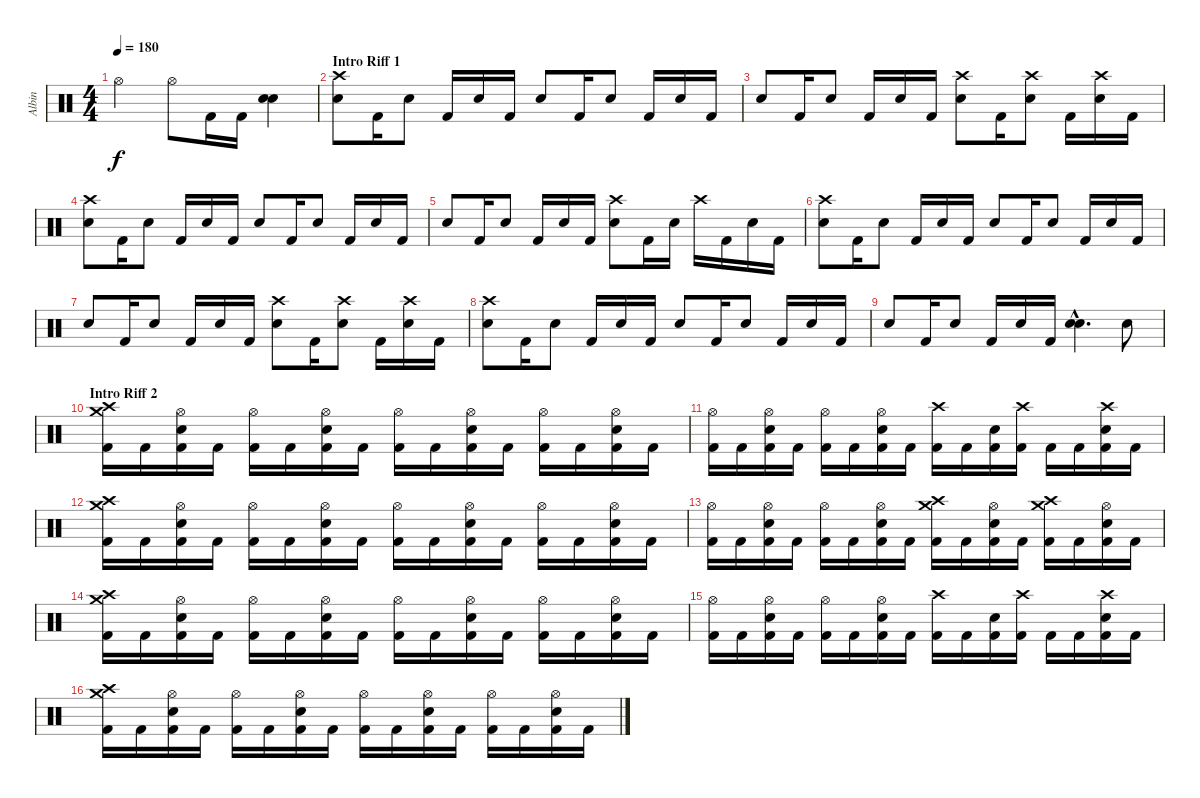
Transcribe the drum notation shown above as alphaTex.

\track ("Albin" "Albin") {instrument percussion}
\staff {score}
\articulation defaults
\ts (4 4)
\tempo 180
\clef neutral
\ks c "Hi-Hat (open)".2{dy f} "Hi-Hat (open)".8 "Kick (hit) 2".16 "Kick (hit) 2".16
("Electric Snare (hit)" "Electric Snare (hit)").4 |
\section ("" "Intro Riff 1")
("Electric Snare (hit)" "Crash high (hit)").8 "Kick (hit) 2".16 "Electric Snare (hit)".8 "Kick (hit) 2".16 "Electric Snare (hit)".16 "Kick (hit) 2".16 "Electric Snare (hit)".8 "Kick (hit) 2".16 "Electric Snare (hit)".8 "Kick (hit) 2".16 "Electric Snare (hit)".16 "Kick (hit) 2".16 |
"Electric Snare (hit)".8 "Kick (hit) 2".16 "Electric Snare (hit)".8 "Kick (hit) 2".16 "Electric Snare (hit)".16 "Kick (hit) 2".16 ("Electric Snare (hit)" "Crash high (hit)").8 "Kick (hit) 2".16 ("Electric Snare (hit)" "Crash high (hit)").8 "Kick (hit) 2".16 ("Electric Snare (hit)" "Crash high (hit)").16 "Kick (hit) 2".16 |
("Electric Snare (hit)" "Crash high (hit)").8 "Kick (hit) 2".16 "Electric Snare (hit)".8 "Kick (hit) 2".16 "Electric Snare (hit)".16 "Kick (hit) 2".16 "Electric Snare (hit)".8 "Kick (hit) 2".16 "Electric Snare (hit)".8 "Kick (hit) 2".16 "Electric Snare (hit)".16 "Kick (hit) 2".16 |
"Electric Snare (hit)".8 "Kick (hit) 2".16 "Electric Snare (hit)".8 "Kick (hit) 2".16 "Electric Snare (hit)".16 "Kick (hit) 2".16 ("Electric Snare (hit)" "Crash high (hit)").8 "Kick (hit) 2".16 "Electric Snare (hit)".16 "Crash high (hit)".16 "Kick (hit) 2".16 "Electric Snare (hit)".16 "Kick (hit) 2".16 |
("Electric Snare (hit)" "Crash high (hit)").8 "Kick (hit) 2".16 "Electric Snare (hit)".8 "Kick (hit) 2".16 "Electric Snare (hit)".16 "Kick (hit) 2".16 "Electric Snare (hit)".8 "Kick (hit) 2".16 "Electric Snare (hit)".8 "Kick (hit) 2".16 "Electric Snare (hit)".16 "Kick (hit) 2".16 |
"Electric Snare (hit)".8 "Kick (hit) 2".16 "Electric Snare (hit)".8 "Kick (hit) 2".16 "Electric Snare (hit)".16 "Kick (hit) 2".16 ("Electric Snare (hit)" "Crash high (hit)").8 "Kick (hit) 2".16 ("Electric Snare (hit)" "Crash high (hit)").8 "Kick (hit) 2".16 ("Electric Snare (hit)" "Crash high (hit)").16 "Kick (hit) 2".16 |
("Electric Snare (hit)" "Crash high (hit)").8 "Kick (hit) 2".16 "Electric Snare (hit)".8 "Kick (hit) 2".16 "Electric Snare (hit)".16 "Kick (hit) 2".16 "Electric Snare (hit)".8 "Kick (hit) 2".16 "Electric Snare (hit)".8 "Kick (hit) 2".16 "Electric Snare (hit)".16 "Kick (hit) 2".16 |
"Electric Snare (hit)".8 "Kick (hit) 2".16 "Electric Snare (hit)".8 "Kick (hit) 2".16 "Electric Snare (hit)".16 "Kick (hit) 2".16 ("Electric Snare (hit)"{hac} "Electric Snare (hit)"{hac}).4{d} "Electric Snare (hit)".8 |
\section ("" "Intro Riff 2")
("Kick (hit) 2" "Crash high (hit)" "Crash medium (hit)").16 "Kick (hit) 2".16 ("Kick (hit) 2" "Electric Snare (hit)" "Hi-Hat (open)").16 "Kick (hit) 2".16 ("Kick (hit) 2" "Hi-Hat (open)").16 "Kick (hit) 2".16 ("Kick (hit) 2" "Electric Snare (hit)" "Hi-Hat (open)").16 "Kick (hit) 2".16 ("Kick (hit) 2" "Hi-Hat (open)").16 "Kick (hit) 2".16 ("Kick (hit) 2" "Electric Snare (hit)" "Hi-Hat (open)").16 "Kick (hit) 2".16 ("Kick (hit) 2" "Hi-Hat (open)").16 "Kick (hit) 2".16 ("Kick (hit) 2" "Electric Snare (hit)" "Hi-Hat (open)").16 "Kick (hit) 2".16 |
("Kick (hit) 2" "Hi-Hat (open)").16 "Kick (hit) 2".16 ("Kick (hit) 2" "Electric Snare (hit)" "Hi-Hat (open)").16 "Kick (hit) 2".16 ("Kick (hit) 2" "Hi-Hat (open)").16 "Kick (hit) 2".16 ("Kick (hit) 2" "Electric Snare (hit)" "Hi-Hat (open)").16 "Kick (hit) 2".16 ("Kick (hit) 2" "Crash high (hit)").16 "Kick (hit) 2".16 ("Kick (hit) 2" "Electric Snare (hit)").16 ("Kick (hit) 2" "Crash high (hit)").16 "Kick (hit) 2".16 "Kick (hit) 2".16 ("Kick (hit) 2" "Electric Snare (hit)" "Crash high (hit)").16 "Kick (hit) 2".16 |
("Kick (hit) 2" "Crash high (hit)" "Crash medium (hit)").16 "Kick (hit) 2".16 ("Kick (hit) 2" "Electric Snare (hit)" "Hi-Hat (open)").16 "Kick (hit) 2".16 ("Kick (hit) 2" "Hi-Hat (open)").16 "Kick (hit) 2".16 ("Kick (hit) 2" "Electric Snare (hit)" "Hi-Hat (open)").16 "Kick (hit) 2".16 ("Kick (hit) 2" "Hi-Hat (open)").16 "Kick (hit) 2".16 ("Kick (hit) 2" "Electric Snare (hit)" "Hi-Hat (open)").16 "Kick (hit) 2".16 ("Kick (hit) 2" "Hi-Hat (open)").16 "Kick (hit) 2".16 ("Kick (hit) 2" "Electric Snare (hit)" "Hi-Hat (open)").16 "Kick (hit) 2".16 |
("Kick (hit) 2" "Hi-Hat (open)").16 "Kick (hit) 2".16 ("Kick (hit) 2" "Electric Snare (hit)" "Hi-Hat (open)").16 "Kick (hit) 2".16 ("Kick (hit) 2" "Hi-Hat (open)").16 "Kick (hit) 2".16 ("Kick (hit) 2" "Electric Snare (hit)" "Hi-Hat (open)").16 "Kick (hit) 2".16 ("Kick (hit) 2" "Crash high (hit)" "Crash medium (hit)").16 "Kick (hit) 2".16 ("Kick (hit) 2" "Electric Snare (hit)" "Hi-Hat (open)").16 "Kick (hit) 2".16 ("Kick (hit) 2" "Crash high (hit)" "Crash medium (hit)").16 "Kick (hit) 2".16 ("Kick (hit) 2" "Electric Snare (hit)" "Hi-Hat (open)").16 "Kick (hit) 2".16 |
("Kick (hit) 2" "Crash high (hit)" "Crash medium (hit)").16 "Kick (hit) 2".16 ("Kick (hit) 2" "Electric Snare (hit)" "Hi-Hat (open)").16 "Kick (hit) 2".16 ("Kick (hit) 2" "Hi-Hat (open)").16 "Kick (hit) 2".16 ("Kick (hit) 2" "Electric Snare (hit)" "Hi-Hat (open)").16 "Kick (hit) 2".16 ("Kick (hit) 2" "Hi-Hat (open)").16 "Kick (hit) 2".16 ("Kick (hit) 2" "Electric Snare (hit)" "Hi-Hat (open)").16 "Kick (hit) 2".16 ("Kick (hit) 2" "Hi-Hat (open)").16 "Kick (hit) 2".16 ("Kick (hit) 2" "Electric Snare (hit)" "Hi-Hat (open)").16 "Kick (hit) 2".16 |
("Kick (hit) 2" "Hi-Hat (open)").16 "Kick (hit) 2".16 ("Kick (hit) 2" "Electric Snare (hit)" "Hi-Hat (open)").16 "Kick (hit) 2".16 ("Kick (hit) 2" "Hi-Hat (open)").16 "Kick (hit) 2".16 ("Kick (hit) 2" "Electric Snare (hit)" "Hi-Hat (open)").16 "Kick (hit) 2".16 ("Kick (hit) 2" "Crash high (hit)").16 "Kick (hit) 2".16 ("Kick (hit) 2" "Electric Snare (hit)").16 ("Kick (hit) 2" "Crash high (hit)").16 "Kick (hit) 2".16 "Kick (hit) 2".16 ("Kick (hit) 2" "Electric Snare (hit)" "Crash high (hit)").16 "Kick (hit) 2".16 |
("Kick (hit) 2" "Crash high (hit)" "Crash medium (hit)").16 "Kick (hit) 2".16 ("Kick (hit) 2" "Electric Snare (hit)" "Hi-Hat (open)").16 "Kick (hit) 2".16 ("Kick (hit) 2" "Hi-Hat (open)").16 "Kick (hit) 2".16 ("Kick (hit) 2" "Electric Snare (hit)" "Hi-Hat (open)").16 "Kick (hit) 2".16 ("Kick (hit) 2" "Hi-Hat (open)").16 "Kick (hit) 2".16 ("Kick (hit) 2" "Electric Snare (hit)" "Hi-Hat (open)").16 "Kick (hit) 2".16 ("Kick (hit) 2" "Hi-Hat (open)").16 "Kick (hit) 2".16 ("Kick (hit) 2" "Electric Snare (hit)" "Hi-Hat (open)").16 "Kick (hit) 2".16
